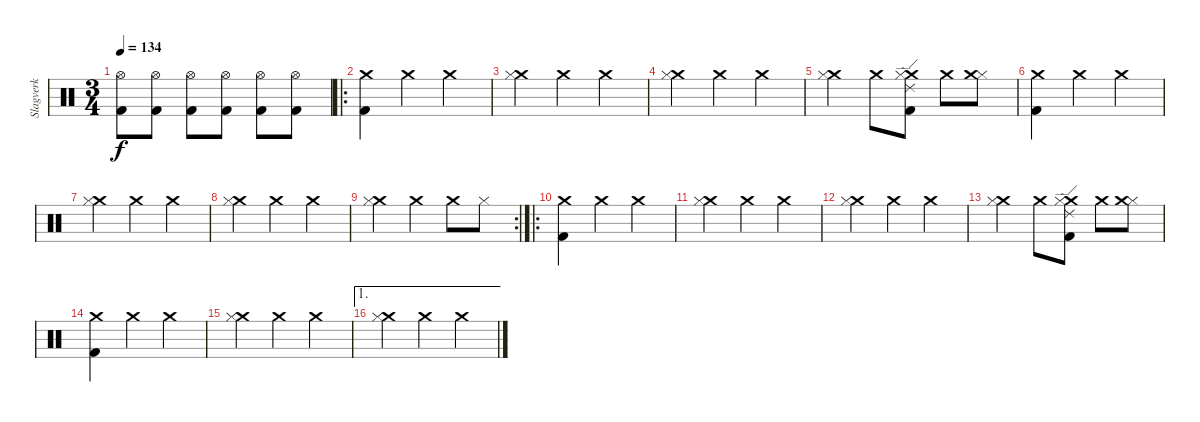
\track ("Slagverk" "Slagverk") {instrument percussion}
\staff {score}
\articulation defaults
\ts (3 4)
\tempo 134
\clef neutral
\ks c
("Hi-Hat (open)" "Kick (hit) 2").8{dy f} ("Hi-Hat (open)" "Kick (hit) 2").8 ("Hi-Hat (open)" "Kick (hit) 2").8 ("Hi-Hat (open)" "Kick (hit) 2").8 ("Hi-Hat (open)" "Kick (hit) 2").8 ("Hi-Hat (open)" "Kick (hit) 2").8 |
\ro
("Crash medium (hit)" "Kick (hit) 2").4{volume 14} "Crash medium (hit)".4 "Crash medium (hit)".4 |
("Crash medium (hit)" "Hi-Hat (closed)").4 "Crash medium (hit)".4 "Crash medium (hit)".4 |
("Crash medium (hit)" "Hi-Hat (closed)").4 "Crash medium (hit)".4 "Crash medium (hit)".4 |
("Crash medium (hit)" "Hi-Hat (closed)").4 "Crash medium (hit)".8 ("Crash medium (hit)" "Hi-Hat (closed)" "Kick (hit) 2" "Ride (edge) 2").8 "Crash medium (hit)".8 ("Hi-Hat (closed)" "Crash medium (hit)").8 |
("Crash medium (hit)" "Kick (hit) 2").4{volume 14} "Crash medium (hit)".4 "Crash medium (hit)".4 |
("Crash medium (hit)" "Hi-Hat (closed)").4 "Crash medium (hit)".4 "Crash medium (hit)".4 |
("Crash medium (hit)" "Hi-Hat (closed)").4 "Crash medium (hit)".4 "Crash medium (hit)".4 |
\rc 2
("Crash medium (hit)" "Hi-Hat (closed)").4 "Crash medium (hit)".4 "Crash medium (hit)".8 "Hi-Hat (closed)".8 |
\ro
("Crash medium (hit)" "Kick (hit) 2").4{volume 14} "Crash medium (hit)".4 "Crash medium (hit)".4 |
("Crash medium (hit)" "Hi-Hat (closed)").4 "Crash medium (hit)".4 "Crash medium (hit)".4 |
("Crash medium (hit)" "Hi-Hat (closed)").4 "Crash medium (hit)".4 "Crash medium (hit)".4 |
("Crash medium (hit)" "Hi-Hat (closed)").4 "Crash medium (hit)".8 ("Crash medium (hit)" "Hi-Hat (closed)" "Kick (hit) 2" "Ride (edge) 2").8 "Crash medium (hit)".8 ("Hi-Hat (closed)" "Crash medium (hit)").8 |
("Crash medium (hit)" "Kick (hit) 2").4{volume 14} "Crash medium (hit)".4 "Crash medium (hit)".4 |
("Crash medium (hit)" "Hi-Hat (closed)").4 "Crash medium (hit)".4 "Crash medium (hit)".4 |
\ae 1
("Crash medium (hit)" "Hi-Hat (closed)").4 "Crash medium (hit)".4 "Crash medium (hit)".4
